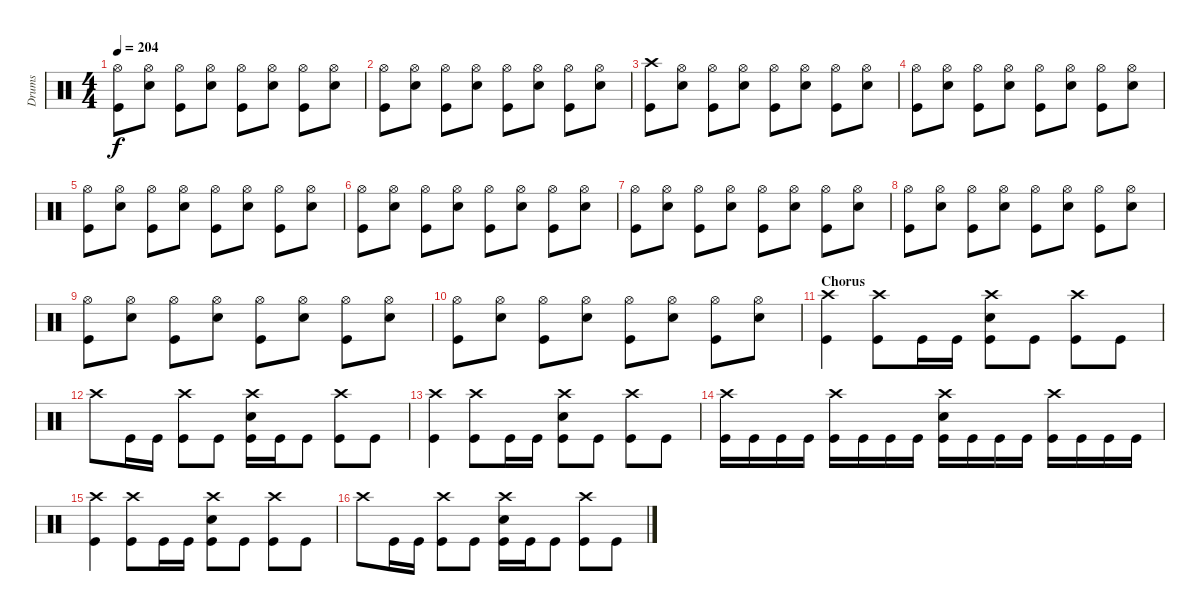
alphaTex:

\track ("Drums" "Drums") {instrument percussion}
\staff {score}
\articulation defaults
\ts (4 4)
\tempo 204
\clef neutral
\ks c
("Hi-Hat (open)" "Kick (hit)").8{dy f} ("Hi-Hat (open)" "Electric Snare (hit)").8 ("Hi-Hat (open)" "Kick (hit)").8 ("Hi-Hat (open)" "Electric Snare (hit)").8 ("Hi-Hat (open)" "Kick (hit)").8 ("Hi-Hat (open)" "Electric Snare (hit)").8 ("Hi-Hat (open)" "Kick (hit)").8 ("Hi-Hat (open)" "Electric Snare (hit)").8 |
("Hi-Hat (open)" "Kick (hit)").8 ("Hi-Hat (open)" "Electric Snare (hit)").8 ("Hi-Hat (open)" "Kick (hit)").8 ("Hi-Hat (open)" "Electric Snare (hit)").8 ("Hi-Hat (open)" "Kick (hit)").8 ("Hi-Hat (open)" "Electric Snare (hit)").8 ("Hi-Hat (open)" "Kick (hit)").8 ("Hi-Hat (open)" "Electric Snare (hit)").8 |
("Crash high (hit)" "Kick (hit)").8 ("Hi-Hat (open)" "Electric Snare (hit)").8 ("Hi-Hat (open)" "Kick (hit)").8 ("Hi-Hat (open)" "Electric Snare (hit)").8 ("Hi-Hat (open)" "Kick (hit)").8 ("Hi-Hat (open)" "Electric Snare (hit)").8 ("Hi-Hat (open)" "Kick (hit)").8 ("Hi-Hat (open)" "Electric Snare (hit)").8 |
("Hi-Hat (open)" "Kick (hit)").8 ("Hi-Hat (open)" "Electric Snare (hit)").8 ("Hi-Hat (open)" "Kick (hit)").8 ("Hi-Hat (open)" "Electric Snare (hit)").8 ("Hi-Hat (open)" "Kick (hit)").8 ("Hi-Hat (open)" "Electric Snare (hit)").8 ("Hi-Hat (open)" "Kick (hit)").8 ("Hi-Hat (open)" "Electric Snare (hit)").8 |
("Hi-Hat (open)" "Kick (hit)").8 ("Hi-Hat (open)" "Electric Snare (hit)").8 ("Hi-Hat (open)" "Kick (hit)").8 ("Hi-Hat (open)" "Electric Snare (hit)").8 ("Hi-Hat (open)" "Kick (hit)").8 ("Hi-Hat (open)" "Electric Snare (hit)").8 ("Hi-Hat (open)" "Kick (hit)").8 ("Hi-Hat (open)" "Electric Snare (hit)").8 |
("Hi-Hat (open)" "Kick (hit)").8 ("Hi-Hat (open)" "Electric Snare (hit)").8 ("Hi-Hat (open)" "Kick (hit)").8 ("Hi-Hat (open)" "Electric Snare (hit)").8 ("Hi-Hat (open)" "Kick (hit)").8 ("Hi-Hat (open)" "Electric Snare (hit)").8 ("Hi-Hat (open)" "Kick (hit)").8 ("Hi-Hat (open)" "Electric Snare (hit)").8 |
("Hi-Hat (open)" "Kick (hit)").8 ("Hi-Hat (open)" "Electric Snare (hit)").8 ("Hi-Hat (open)" "Kick (hit)").8 ("Hi-Hat (open)" "Electric Snare (hit)").8 ("Hi-Hat (open)" "Kick (hit)").8 ("Hi-Hat (open)" "Electric Snare (hit)").8 ("Hi-Hat (open)" "Kick (hit)").8 ("Hi-Hat (open)" "Electric Snare (hit)").8 |
("Hi-Hat (open)" "Kick (hit)").8 ("Hi-Hat (open)" "Electric Snare (hit)").8 ("Hi-Hat (open)" "Kick (hit)").8 ("Hi-Hat (open)" "Electric Snare (hit)").8 ("Hi-Hat (open)" "Kick (hit)").8 ("Hi-Hat (open)" "Electric Snare (hit)").8 ("Hi-Hat (open)" "Kick (hit)").8 ("Hi-Hat (open)" "Electric Snare (hit)").8 |
("Hi-Hat (open)" "Kick (hit)").8 ("Hi-Hat (open)" "Electric Snare (hit)").8 ("Hi-Hat (open)" "Kick (hit)").8 ("Hi-Hat (open)" "Electric Snare (hit)").8 ("Hi-Hat (open)" "Kick (hit)").8 ("Hi-Hat (open)" "Electric Snare (hit)").8 ("Hi-Hat (open)" "Kick (hit)").8 ("Hi-Hat (open)" "Electric Snare (hit)").8 |
("Hi-Hat (open)" "Kick (hit)").8 ("Hi-Hat (open)" "Electric Snare (hit)").8 ("Hi-Hat (open)" "Kick (hit)").8 ("Hi-Hat (open)" "Electric Snare (hit)").8 ("Hi-Hat (open)" "Kick (hit)").8 ("Hi-Hat (open)" "Electric Snare (hit)").8 ("Hi-Hat (open)" "Kick (hit)").8 ("Hi-Hat (open)" "Electric Snare (hit)").8 |
\section ("" "Chorus")
("Crash high (hit)" "Kick (hit)").4 ("Crash high (hit)" "Kick (hit)").8 "Kick (hit)".16 "Kick (hit)".16 ("Crash high (hit)" "Electric Snare (hit)" "Kick (hit)").8 "Kick (hit)".8 ("Crash high (hit)" "Kick (hit)").8 "Kick (hit)".8 |
"Crash high (hit)".8 "Kick (hit)".16 "Kick (hit)".16 ("Crash high (hit)" "Kick (hit)").8 "Kick (hit)".8 ("Crash high (hit)" "Electric Snare (hit)" "Kick (hit)").16 "Kick (hit)".16 "Kick (hit)".8 ("Crash high (hit)" "Kick (hit)").8 "Kick (hit)".8 |
("Crash high (hit)" "Kick (hit)").4 ("Crash high (hit)" "Kick (hit)").8 "Kick (hit)".16 "Kick (hit)".16 ("Crash high (hit)" "Electric Snare (hit)" "Kick (hit)").8 "Kick (hit)".8 ("Crash high (hit)" "Kick (hit)").8 "Kick (hit)".8 |
("Crash high (hit)" "Kick (hit)").16 "Kick (hit)".16 "Kick (hit)".16 "Kick (hit)".16 ("Crash high (hit)" "Kick (hit)").16 "Kick (hit)".16 "Kick (hit)".16 "Kick (hit)".16 ("Crash high (hit)" "Electric Snare (hit)" "Kick (hit)").16 "Kick (hit)".16 "Kick (hit)".16 "Kick (hit)".16 ("Crash high (hit)" "Kick (hit)").16 "Kick (hit)".16 "Kick (hit)".16 "Kick (hit)".16 |
("Crash high (hit)" "Kick (hit)").4 ("Crash high (hit)" "Kick (hit)").8 "Kick (hit)".16 "Kick (hit)".16 ("Crash high (hit)" "Electric Snare (hit)" "Kick (hit)").8 "Kick (hit)".8 ("Crash high (hit)" "Kick (hit)").8 "Kick (hit)".8 |
"Crash high (hit)".8 "Kick (hit)".16 "Kick (hit)".16 ("Crash high (hit)" "Kick (hit)").8 "Kick (hit)".8 ("Crash high (hit)" "Electric Snare (hit)" "Kick (hit)").16 "Kick (hit)".16 "Kick (hit)".8 ("Crash high (hit)" "Kick (hit)").8 "Kick (hit)".8
